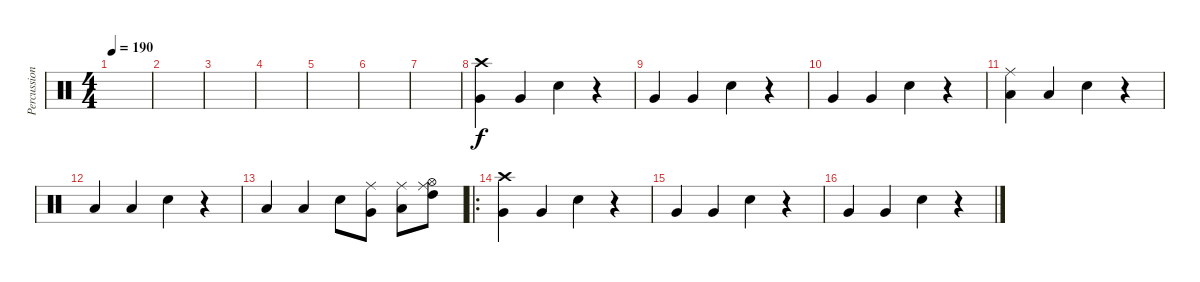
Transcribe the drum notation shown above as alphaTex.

\track ("Percussion" "Percussion") {instrument percussion}
\staff {score}
\articulation defaults
\ts (4 4)
\tempo 190
\clef neutral
\ks c
|
|
|
|
|
|
|
("Crash high (hit)" "Very Low Tom (hit)").4 "Very Low Tom (hit)".4 "Snare (hit) 2".4 r.4 |
"Very Low Tom (hit)".4 "Very Low Tom (hit)".4 "Snare (hit) 2".4 r.4 |
"Very Low Tom (hit)".4 "Very Low Tom (hit)".4 "Snare (hit) 2".4 r.4 |
("Low Floor Tom (hit)" "Ride (middle)").4 "Low Floor Tom (hit)".4 "Snare (hit) 2".4 r.4 |
"Low Floor Tom (hit)".4 "Low Floor Tom (hit)".4 "Snare (hit) 2".4 r.4 |
"Low Floor Tom (hit)".4 "Low Floor Tom (hit)".4 "Snare (hit) 2".8 ("Very Low Tom (hit)" "Ride (middle)").8 ("Low Tom (hit)" "Ride (middle)").8 ("High Tom (hit)" "Hi-Hat (open)" "Ride (middle)").8 |
\ro
("Crash high (hit)" "Very Low Tom (hit)").4 "Very Low Tom (hit)".4 "Snare (hit) 2".4 r.4 |
"Very Low Tom (hit)".4 "Very Low Tom (hit)".4 "Snare (hit) 2".4 r.4 |
"Very Low Tom (hit)".4 "Very Low Tom (hit)".4 "Snare (hit) 2".4 r.4
